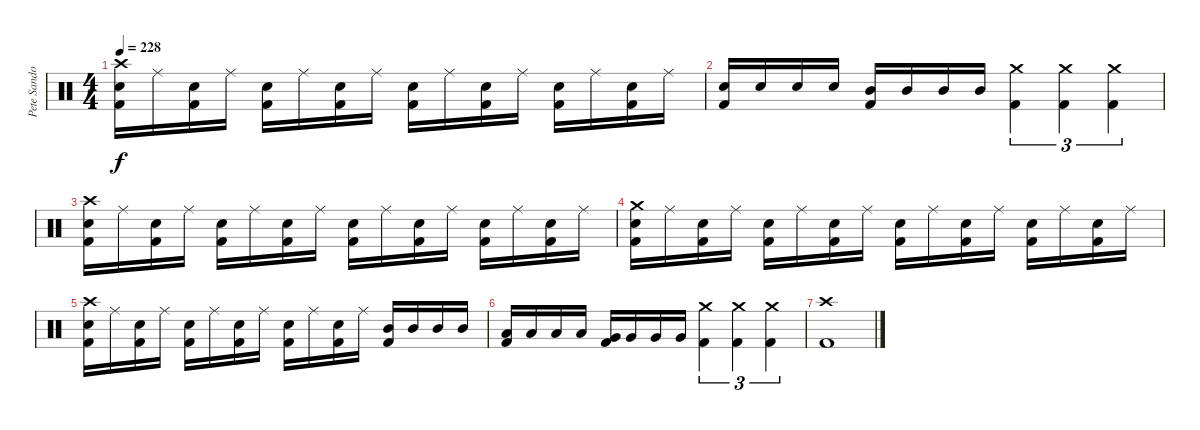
\track ("Pete Sandoval" "Pete Sando") {instrument percussion}
\staff {score}
\articulation defaults
\ts (4 4)
\tempo 228
\clef neutral
\ks c
("Crash high (hit)" "Kick (hit) 2" "Electric Snare (hit)").16{dy f} "Ride (middle)".16 ("Kick (hit) 2" "Electric Snare (hit)").16 "Ride (middle)".16 ("Kick (hit) 2" "Electric Snare (hit)").16 "Ride (middle)".16 ("Kick (hit) 2" "Electric Snare (hit)").16 "Ride (middle)".16 ("Kick (hit) 2" "Electric Snare (hit)").16 "Ride (middle)".16 ("Kick (hit) 2" "Electric Snare (hit)").16 "Ride (middle)".16 ("Kick (hit) 2" "Electric Snare (hit)").16 "Ride (middle)".16 ("Kick (hit) 2" "Electric Snare (hit)").16 "Ride (middle)".16 |
("Kick (hit) 2" "Electric Snare (hit)").16 "Electric Snare (hit)".16 "Electric Snare (hit)".16 "Electric Snare (hit)".16 ("Kick (hit) 2" "Mid Tom (hit)").16 "Mid Tom (hit)".16 "Mid Tom (hit)".16 "Mid Tom (hit)".16 ("Crash medium (hit)" "Kick (hit) 2").4{tu (3 2)} ("Crash medium (hit)" "Kick (hit) 2").4{tu (3 2)} ("Crash medium (hit)" "Kick (hit) 2").4{tu (3 2)} |
("Crash high (hit)" "Kick (hit) 2" "Electric Snare (hit)").16 "Ride (middle)".16 ("Kick (hit) 2" "Electric Snare (hit)").16 "Ride (middle)".16 ("Kick (hit) 2" "Electric Snare (hit)").16 "Ride (middle)".16 ("Kick (hit) 2" "Electric Snare (hit)").16 "Ride (middle)".16 ("Kick (hit) 2" "Electric Snare (hit)").16 "Ride (middle)".16 ("Kick (hit) 2" "Electric Snare (hit)").16 "Ride (middle)".16 ("Kick (hit) 2" "Electric Snare (hit)").16 "Ride (middle)".16 ("Kick (hit) 2" "Electric Snare (hit)").16 "Ride (middle)".16 |
("Crash medium (hit)" "Kick (hit) 2" "Electric Snare (hit)").16 "Ride (middle)".16 ("Kick (hit) 2" "Electric Snare (hit)").16 "Ride (middle)".16 ("Kick (hit) 2" "Electric Snare (hit)").16 "Ride (middle)".16 ("Kick (hit) 2" "Electric Snare (hit)").16 "Ride (middle)".16 ("Kick (hit) 2" "Electric Snare (hit)").16 "Ride (middle)".16 ("Kick (hit) 2" "Electric Snare (hit)").16 "Ride (middle)".16 ("Kick (hit) 2" "Electric Snare (hit)").16 "Ride (middle)".16 ("Kick (hit) 2" "Electric Snare (hit)").16 "Ride (middle)".16 |
("Crash high (hit)" "Kick (hit) 2" "Electric Snare (hit)").16 "Ride (middle)".16 ("Kick (hit) 2" "Electric Snare (hit)").16 "Ride (middle)".16 ("Kick (hit) 2" "Electric Snare (hit)").16 "Ride (middle)".16 ("Kick (hit) 2" "Electric Snare (hit)").16 "Ride (middle)".16 ("Kick (hit) 2" "Electric Snare (hit)").16 "Ride (middle)".16 ("Kick (hit) 2" "Electric Snare (hit)").16 "Ride (middle)".16 ("Kick (hit) 2" "Mid Tom (hit)").16 "Mid Tom (hit)".16 "Mid Tom (hit)".16 "Mid Tom (hit)".16 |
("Kick (hit) 2" "Low Tom (hit)").16 "Low Tom (hit)".16 "Low Tom (hit)".16 "Low Tom (hit)".16 ("Kick (hit) 2" "Very Low Tom (hit)").16 "Very Low Tom (hit)".16 "Very Low Tom (hit)".16 "Very Low Tom (hit)".16 ("Crash medium (hit)" "Kick (hit) 2").4{tu (3 2)} ("Crash medium (hit)" "Kick (hit) 2").4{tu (3 2)} ("Crash medium (hit)" "Kick (hit) 2").4{tu (3 2)} |
("Crash high (hit)" "Kick (hit) 2").1
